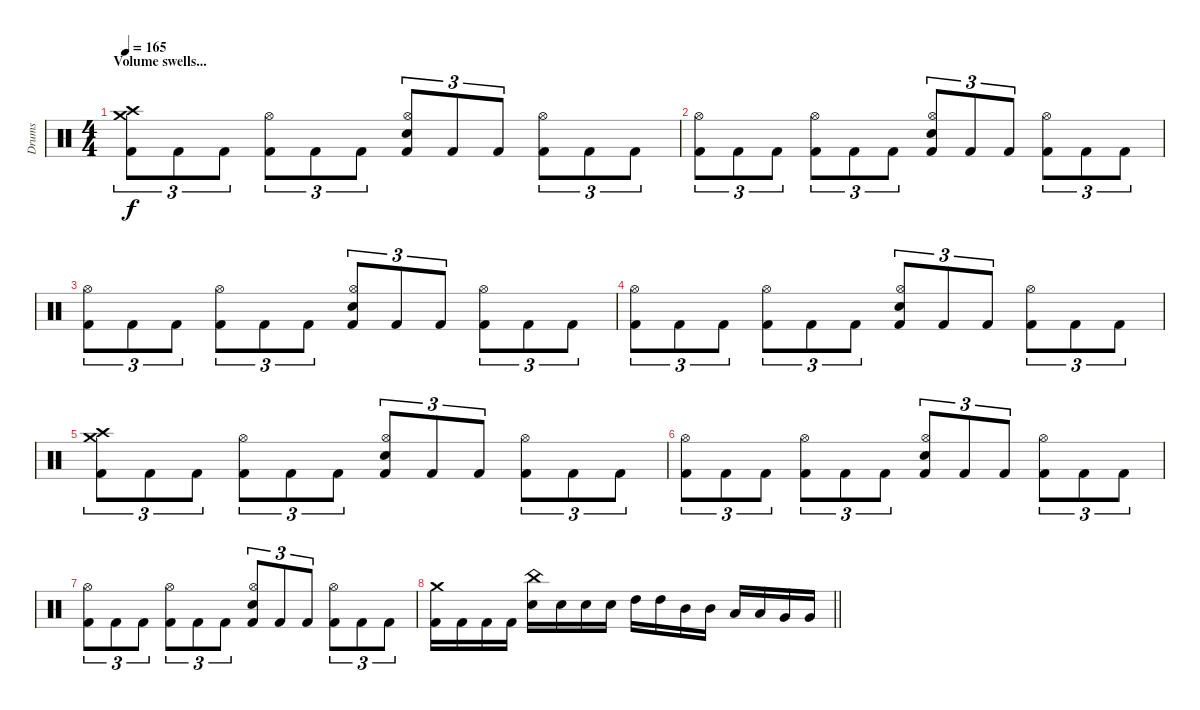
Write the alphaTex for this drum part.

\track ("Drums" "Drums") {instrument percussion}
\staff {score}
\articulation defaults
\ts (4 4)
\section ("" "Volume swells...")
\tempo 165
\clef neutral
\ks c
("Crash medium (hit)" "Crash high (hit)" "Kick (hit) 2").8{tu (3 2) dy f} "Kick (hit) 2".8{tu (3 2)} "Kick (hit) 2".8{tu (3 2)} ("Hi-Hat (open)" "Kick (hit) 2").8{tu (3 2)} "Kick (hit) 2".8{tu (3 2)} "Kick (hit) 2".8{tu (3 2)} ("Hi-Hat (open)" "Electric Snare (hit)" "Kick (hit) 2").8{tu (3 2)} "Kick (hit) 2".8{tu (3 2)} "Kick (hit) 2".8{tu (3 2)} ("Hi-Hat (open)" "Kick (hit) 2").8{tu (3 2)} "Kick (hit) 2".8{tu (3 2)} "Kick (hit) 2".8{tu (3 2)} |
("Hi-Hat (open)" "Kick (hit) 2").8{tu (3 2)} "Kick (hit) 2".8{tu (3 2)} "Kick (hit) 2".8{tu (3 2)} ("Hi-Hat (open)" "Kick (hit) 2").8{tu (3 2)} "Kick (hit) 2".8{tu (3 2)} "Kick (hit) 2".8{tu (3 2)} ("Hi-Hat (open)" "Electric Snare (hit)" "Kick (hit) 2").8{tu (3 2)} "Kick (hit) 2".8{tu (3 2)} "Kick (hit) 2".8{tu (3 2)} ("Hi-Hat (open)" "Kick (hit) 2").8{tu (3 2)} "Kick (hit) 2".8{tu (3 2)} "Kick (hit) 2".8{tu (3 2)} |
("Hi-Hat (open)" "Kick (hit) 2").8{tu (3 2)} "Kick (hit) 2".8{tu (3 2)} "Kick (hit) 2".8{tu (3 2)} ("Hi-Hat (open)" "Kick (hit) 2").8{tu (3 2)} "Kick (hit) 2".8{tu (3 2)} "Kick (hit) 2".8{tu (3 2)} ("Hi-Hat (open)" "Electric Snare (hit)" "Kick (hit) 2").8{tu (3 2)} "Kick (hit) 2".8{tu (3 2)} "Kick (hit) 2".8{tu (3 2)} ("Hi-Hat (open)" "Kick (hit) 2").8{tu (3 2)} "Kick (hit) 2".8{tu (3 2)} "Kick (hit) 2".8{tu (3 2)} |
("Hi-Hat (open)" "Kick (hit) 2").8{tu (3 2)} "Kick (hit) 2".8{tu (3 2)} "Kick (hit) 2".8{tu (3 2)} ("Hi-Hat (open)" "Kick (hit) 2").8{tu (3 2)} "Kick (hit) 2".8{tu (3 2)} "Kick (hit) 2".8{tu (3 2)} ("Hi-Hat (open)" "Electric Snare (hit)" "Kick (hit) 2").8{tu (3 2)} "Kick (hit) 2".8{tu (3 2)} "Kick (hit) 2".8{tu (3 2)} ("Hi-Hat (open)" "Kick (hit) 2").8{tu (3 2)} "Kick (hit) 2".8{tu (3 2)} "Kick (hit) 2".8{tu (3 2)} |
("Crash medium (hit)" "Crash high (hit)" "Kick (hit) 2").8{tu (3 2)} "Kick (hit) 2".8{tu (3 2)} "Kick (hit) 2".8{tu (3 2)} ("Hi-Hat (open)" "Kick (hit) 2").8{tu (3 2)} "Kick (hit) 2".8{tu (3 2)} "Kick (hit) 2".8{tu (3 2)} ("Hi-Hat (open)" "Electric Snare (hit)" "Kick (hit) 2").8{tu (3 2)} "Kick (hit) 2".8{tu (3 2)} "Kick (hit) 2".8{tu (3 2)} ("Hi-Hat (open)" "Kick (hit) 2").8{tu (3 2)} "Kick (hit) 2".8{tu (3 2)} "Kick (hit) 2".8{tu (3 2)} |
("Hi-Hat (open)" "Kick (hit) 2").8{tu (3 2)} "Kick (hit) 2".8{tu (3 2)} "Kick (hit) 2".8{tu (3 2)} ("Hi-Hat (open)" "Kick (hit) 2").8{tu (3 2)} "Kick (hit) 2".8{tu (3 2)} "Kick (hit) 2".8{tu (3 2)} ("Hi-Hat (open)" "Electric Snare (hit)" "Kick (hit) 2").8{tu (3 2)} "Kick (hit) 2".8{tu (3 2)} "Kick (hit) 2".8{tu (3 2)} ("Hi-Hat (open)" "Kick (hit) 2").8{tu (3 2)} "Kick (hit) 2".8{tu (3 2)} "Kick (hit) 2".8{tu (3 2)} |
("Hi-Hat (open)" "Kick (hit) 2").8{tu (3 2)} "Kick (hit) 2".8{tu (3 2)} "Kick (hit) 2".8{tu (3 2)} ("Hi-Hat (open)" "Kick (hit) 2").8{tu (3 2)} "Kick (hit) 2".8{tu (3 2)} "Kick (hit) 2".8{tu (3 2)} ("Hi-Hat (open)" "Electric Snare (hit)" "Kick (hit) 2").8{tu (3 2)} "Kick (hit) 2".8{tu (3 2)} "Kick (hit) 2".8{tu (3 2)} ("Hi-Hat (open)" "Kick (hit) 2").8{tu (3 2)} "Kick (hit) 2".8{tu (3 2)} "Kick (hit) 2".8{tu (3 2)} |
\barLineRight lightlight
("Crash medium (hit)" "Kick (hit) 2").16 "Kick (hit) 2".16 "Kick (hit) 2".16 "Kick (hit) 2".16 ("China (hit)" "Electric Snare (hit)").16 "Electric Snare (hit)".16 "Electric Snare (hit)".16 "Electric Snare (hit)".16 "High Tom (hit)".16 "High Tom (hit)".16 "Mid Tom (hit)".16 "Mid Tom (hit)".16 "Low Tom (hit)".16 "Low Tom (hit)".16 "Very Low Tom (hit)".16 "Very Low Tom (hit)".16
